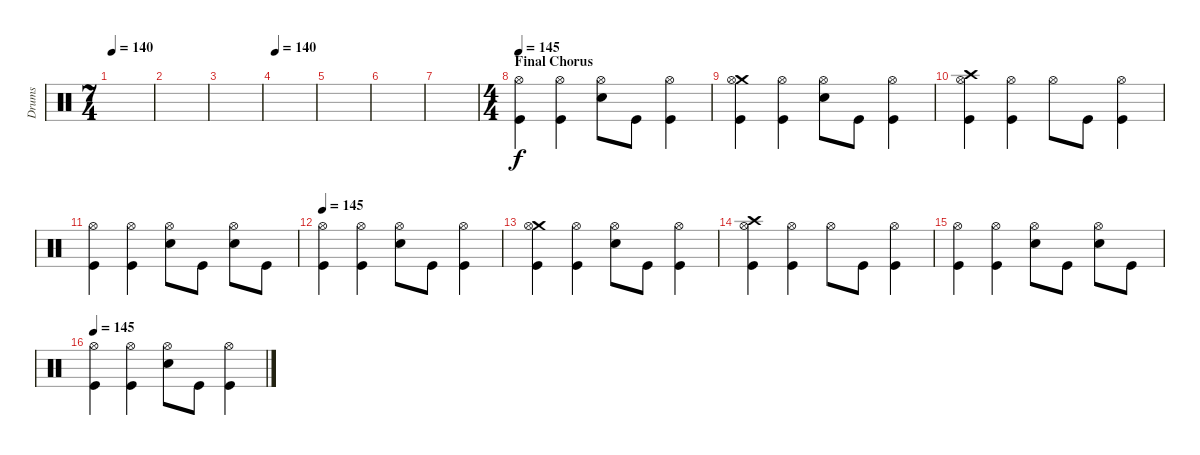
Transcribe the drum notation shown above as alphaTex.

\track ("Drums" "Drums") {instrument percussion}
\staff {score}
\articulation defaults
\ts (7 4)
\tempo 140
\clef neutral
\ks c
|
|
|
\tempo 140
|
|
|
|
\ts (4 4)
\section ("" "Final Chorus")
\tempo 145
("Hi-Hat (open)" "Kick (hit)").4 ("Hi-Hat (open)" "Kick (hit)").4 ("Hi-Hat (open)" "Snare (hit) 2").8 "Kick (hit)".8 ("Hi-Hat (open)" "Kick (hit)").4 |
("Crash medium (hit)" "Hi-Hat (open)" "Kick (hit)").4 ("Hi-Hat (open)" "Kick (hit)").4 ("Hi-Hat (open)" "Snare (hit) 2").8 "Kick (hit)".8 ("Hi-Hat (open)" "Kick (hit)").4 |
("Crash high (hit)" "Hi-Hat (open)" "Kick (hit)").4 ("Hi-Hat (open)" "Kick (hit)").4 "Hi-Hat (open)".8 "Kick (hit)".8 ("Hi-Hat (open)" "Kick (hit)").4 |
("Hi-Hat (open)" "Kick (hit)").4 ("Hi-Hat (open)" "Kick (hit)").4 ("Hi-Hat (open)" "Snare (hit) 2").8 "Kick (hit)".8 ("Hi-Hat (open)" "Snare (hit) 2").8 "Kick (hit)".8 |
\tempo 145
("Hi-Hat (open)" "Kick (hit)").4 ("Hi-Hat (open)" "Kick (hit)").4 ("Hi-Hat (open)" "Snare (hit) 2").8 "Kick (hit)".8 ("Hi-Hat (open)" "Kick (hit)").4 |
("Crash medium (hit)" "Hi-Hat (open)" "Kick (hit)").4 ("Hi-Hat (open)" "Kick (hit)").4 ("Hi-Hat (open)" "Snare (hit) 2").8 "Kick (hit)".8 ("Hi-Hat (open)" "Kick (hit)").4 |
("Crash high (hit)" "Hi-Hat (open)" "Kick (hit)").4 ("Hi-Hat (open)" "Kick (hit)").4 "Hi-Hat (open)".8 "Kick (hit)".8 ("Hi-Hat (open)" "Kick (hit)").4 |
("Hi-Hat (open)" "Kick (hit)").4 ("Hi-Hat (open)" "Kick (hit)").4 ("Hi-Hat (open)" "Snare (hit) 2").8 "Kick (hit)".8 ("Hi-Hat (open)" "Snare (hit) 2").8 "Kick (hit)".8 |
\tempo 145
("Hi-Hat (open)" "Kick (hit)").4 ("Hi-Hat (open)" "Kick (hit)").4 ("Hi-Hat (open)" "Snare (hit) 2").8 "Kick (hit)".8 ("Hi-Hat (open)" "Kick (hit)").4
